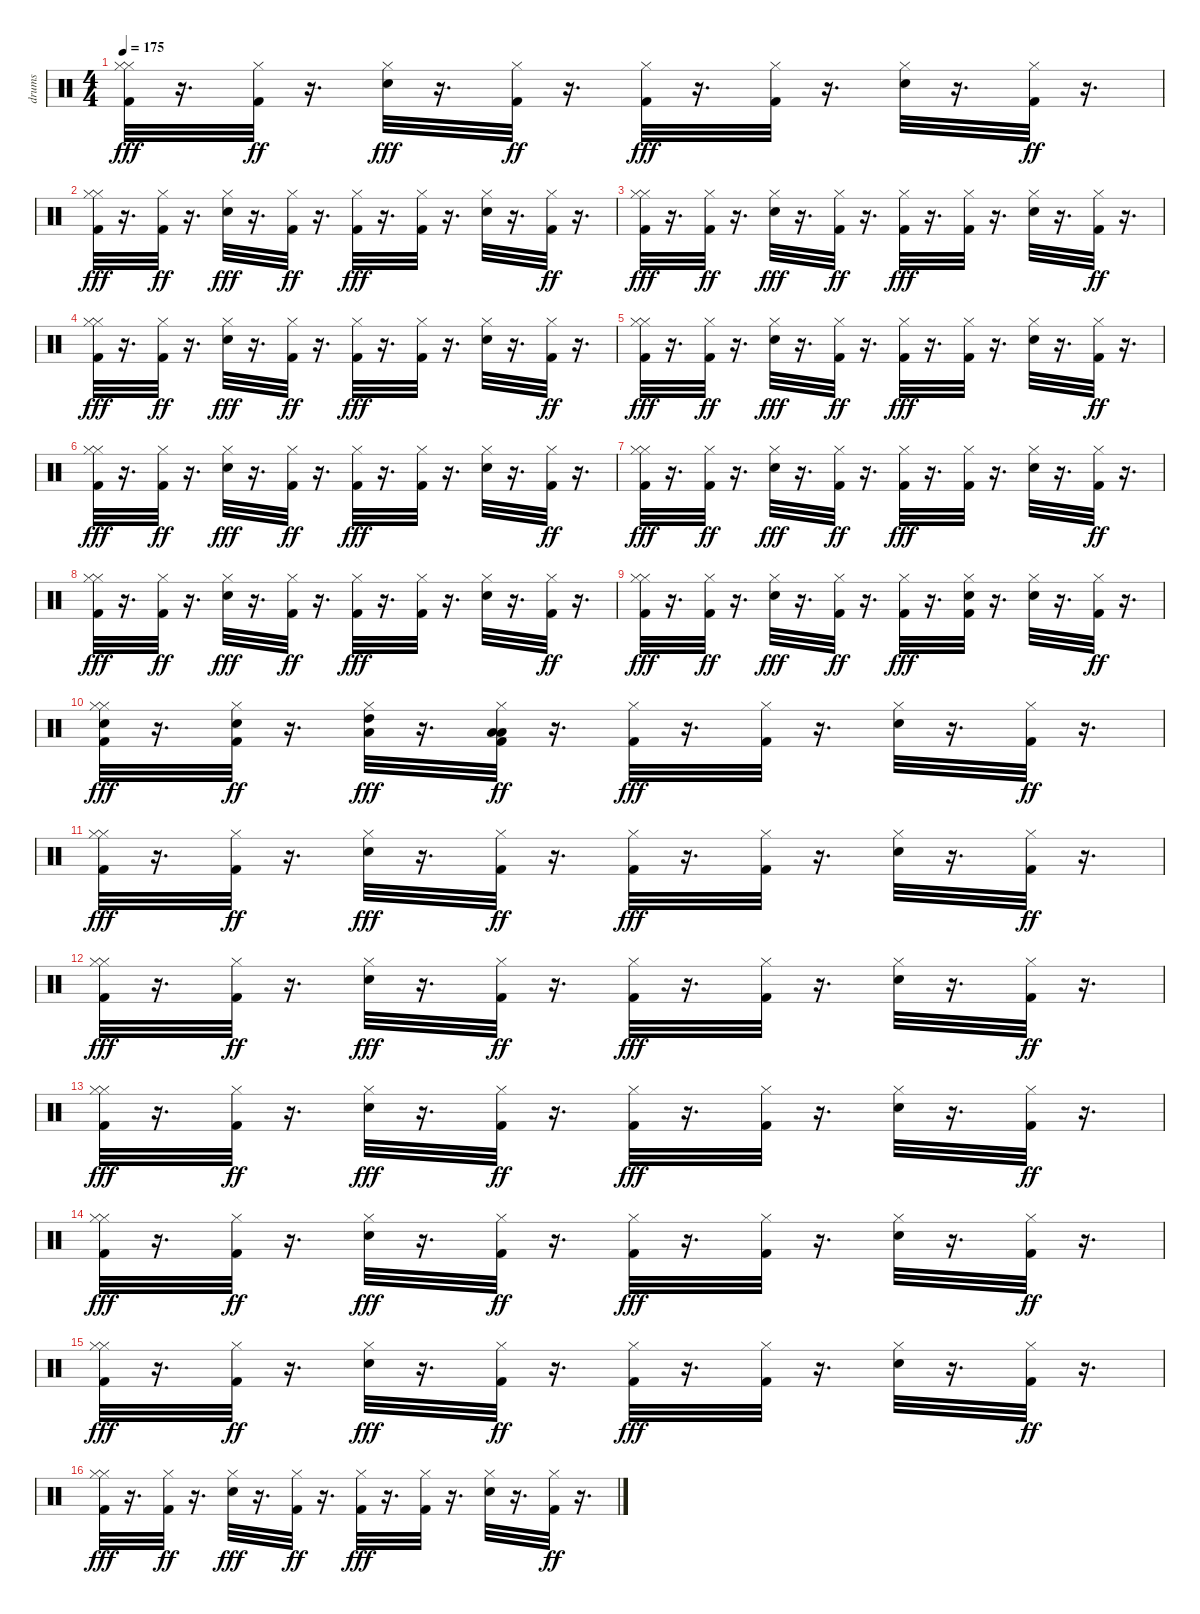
\track ("drums" "drums") {instrument percussion}
\staff {score}
\articulation defaults
\ts (4 4)
\tempo 175
\clef neutral
\ks c
("Hi-Hat (closed)" "Hi-Hat (closed)" "Kick (hit) 2").32{dy fff} r.16{d} ("Hi-Hat (closed)" "Kick (hit) 2").32{dy ff} r.16{d} ("Hi-Hat (closed)" "Electric Snare (hit)").32{dy fff} r.16{d} ("Hi-Hat (closed)" "Kick (hit) 2").32{dy ff} r.16{d} ("Hi-Hat (closed)" "Kick (hit) 2").32{dy fff} r.16{d} ("Hi-Hat (closed)" "Kick (hit) 2").32 r.16{d} ("Hi-Hat (closed)" "Electric Snare (hit)").32 r.16{d} ("Hi-Hat (closed)" "Kick (hit) 2").32{dy ff} r.16{d} |
("Hi-Hat (closed)" "Hi-Hat (closed)" "Kick (hit) 2").32{dy fff} r.16{d} ("Hi-Hat (closed)" "Kick (hit) 2").32{dy ff} r.16{d} ("Hi-Hat (closed)" "Electric Snare (hit)").32{dy fff} r.16{d} ("Hi-Hat (closed)" "Kick (hit) 2").32{dy ff} r.16{d} ("Hi-Hat (closed)" "Kick (hit) 2").32{dy fff} r.16{d} ("Hi-Hat (closed)" "Kick (hit) 2").32 r.16{d} ("Hi-Hat (closed)" "Electric Snare (hit)").32 r.16{d} ("Hi-Hat (closed)" "Kick (hit) 2").32{dy ff} r.16{d} |
("Hi-Hat (closed)" "Hi-Hat (closed)" "Kick (hit) 2").32{dy fff} r.16{d} ("Hi-Hat (closed)" "Kick (hit) 2").32{dy ff} r.16{d} ("Hi-Hat (closed)" "Electric Snare (hit)").32{dy fff} r.16{d} ("Hi-Hat (closed)" "Kick (hit) 2").32{dy ff} r.16{d} ("Hi-Hat (closed)" "Kick (hit) 2").32{dy fff} r.16{d} ("Hi-Hat (closed)" "Kick (hit) 2").32 r.16{d} ("Hi-Hat (closed)" "Electric Snare (hit)").32 r.16{d} ("Hi-Hat (closed)" "Kick (hit) 2").32{dy ff} r.16{d} |
("Hi-Hat (closed)" "Hi-Hat (closed)" "Kick (hit) 2").32{dy fff} r.16{d} ("Hi-Hat (closed)" "Kick (hit) 2").32{dy ff} r.16{d} ("Hi-Hat (closed)" "Electric Snare (hit)").32{dy fff} r.16{d} ("Hi-Hat (closed)" "Kick (hit) 2").32{dy ff} r.16{d} ("Hi-Hat (closed)" "Kick (hit) 2").32{dy fff} r.16{d} ("Hi-Hat (closed)" "Kick (hit) 2").32 r.16{d} ("Hi-Hat (closed)" "Electric Snare (hit)").32 r.16{d} ("Hi-Hat (closed)" "Kick (hit) 2").32{dy ff} r.16{d} |
("Hi-Hat (closed)" "Hi-Hat (closed)" "Kick (hit) 2").32{dy fff} r.16{d} ("Hi-Hat (closed)" "Kick (hit) 2").32{dy ff} r.16{d} ("Hi-Hat (closed)" "Electric Snare (hit)").32{dy fff} r.16{d} ("Hi-Hat (closed)" "Kick (hit) 2").32{dy ff} r.16{d} ("Hi-Hat (closed)" "Kick (hit) 2").32{dy fff} r.16{d} ("Hi-Hat (closed)" "Kick (hit) 2").32 r.16{d} ("Hi-Hat (closed)" "Electric Snare (hit)").32 r.16{d} ("Hi-Hat (closed)" "Kick (hit) 2").32{dy ff} r.16{d} |
("Hi-Hat (closed)" "Hi-Hat (closed)" "Kick (hit) 2").32{dy fff} r.16{d} ("Hi-Hat (closed)" "Kick (hit) 2").32{dy ff} r.16{d} ("Hi-Hat (closed)" "Electric Snare (hit)").32{dy fff} r.16{d} ("Hi-Hat (closed)" "Kick (hit) 2").32{dy ff} r.16{d} ("Hi-Hat (closed)" "Kick (hit) 2").32{dy fff} r.16{d} ("Hi-Hat (closed)" "Kick (hit) 2").32 r.16{d} ("Hi-Hat (closed)" "Electric Snare (hit)").32 r.16{d} ("Hi-Hat (closed)" "Kick (hit) 2").32{dy ff} r.16{d} |
("Hi-Hat (closed)" "Hi-Hat (closed)" "Kick (hit) 2").32{dy fff} r.16{d} ("Hi-Hat (closed)" "Kick (hit) 2").32{dy ff} r.16{d} ("Hi-Hat (closed)" "Electric Snare (hit)").32{dy fff} r.16{d} ("Hi-Hat (closed)" "Kick (hit) 2").32{dy ff} r.16{d} ("Hi-Hat (closed)" "Kick (hit) 2").32{dy fff} r.16{d} ("Hi-Hat (closed)" "Kick (hit) 2").32 r.16{d} ("Hi-Hat (closed)" "Electric Snare (hit)").32 r.16{d} ("Hi-Hat (closed)" "Kick (hit) 2").32{dy ff} r.16{d} |
("Hi-Hat (closed)" "Hi-Hat (closed)" "Kick (hit) 2").32{dy fff} r.16{d} ("Hi-Hat (closed)" "Kick (hit) 2").32{dy ff} r.16{d} ("Hi-Hat (closed)" "Electric Snare (hit)").32{dy fff} r.16{d} ("Hi-Hat (closed)" "Kick (hit) 2").32{dy ff} r.16{d} ("Hi-Hat (closed)" "Kick (hit) 2").32{dy fff} r.16{d} ("Hi-Hat (closed)" "Kick (hit) 2").32 r.16{d} ("Hi-Hat (closed)" "Electric Snare (hit)").32 r.16{d} ("Hi-Hat (closed)" "Kick (hit) 2").32{dy ff} r.16{d} |
("Hi-Hat (closed)" "Hi-Hat (closed)" "Kick (hit) 2").32{dy fff} r.16{d} ("Hi-Hat (closed)" "Kick (hit) 2").32{dy ff} r.16{d} ("Hi-Hat (closed)" "Electric Snare (hit)").32{dy fff} r.16{d} ("Hi-Hat (closed)" "Kick (hit) 2").32{dy ff} r.16{d} ("Hi-Hat (closed)" "Kick (hit) 2").32{dy fff} r.16{d} ("Hi-Hat (closed)" "Electric Snare (hit)" "Kick (hit) 2").32 r.16{d} ("Hi-Hat (closed)" "Electric Snare (hit)").32 r.16{d} ("Hi-Hat (closed)" "Kick (hit) 2").32{dy ff} r.16{d} |
("Hi-Hat (closed)" "Hi-Hat (closed)" "Electric Snare (hit)" "Kick (hit) 2").32{dy fff} r.16{d} ("Hi-Hat (closed)" "Electric Snare (hit)" "Kick (hit) 2").32{dy ff} r.16{d} ("Hi-Hat (closed)" "Low Tom (hit)" "High Tom (hit)").32{dy fff} r.16{d} ("Hi-Hat (closed)" "Low Floor Tom (hit)" "Low Tom (hit)" "Kick (hit) 2").32{dy ff} r.16{d} ("Hi-Hat (closed)" "Kick (hit) 2").32{dy fff} r.16{d} ("Hi-Hat (closed)" "Kick (hit) 2").32 r.16{d} ("Hi-Hat (closed)" "Electric Snare (hit)").32 r.16{d} ("Hi-Hat (closed)" "Kick (hit) 2").32{dy ff} r.16{d} |
("Hi-Hat (closed)" "Hi-Hat (closed)" "Kick (hit) 2").32{dy fff} r.16{d} ("Hi-Hat (closed)" "Kick (hit) 2").32{dy ff} r.16{d} ("Hi-Hat (closed)" "Electric Snare (hit)").32{dy fff} r.16{d} ("Hi-Hat (closed)" "Kick (hit) 2").32{dy ff} r.16{d} ("Hi-Hat (closed)" "Kick (hit) 2").32{dy fff} r.16{d} ("Hi-Hat (closed)" "Kick (hit) 2").32 r.16{d} ("Hi-Hat (closed)" "Electric Snare (hit)").32 r.16{d} ("Hi-Hat (closed)" "Kick (hit) 2").32{dy ff} r.16{d} |
("Hi-Hat (closed)" "Hi-Hat (closed)" "Kick (hit) 2").32{dy fff} r.16{d} ("Hi-Hat (closed)" "Kick (hit) 2").32{dy ff} r.16{d} ("Hi-Hat (closed)" "Electric Snare (hit)").32{dy fff} r.16{d} ("Hi-Hat (closed)" "Kick (hit) 2").32{dy ff} r.16{d} ("Hi-Hat (closed)" "Kick (hit) 2").32{dy fff} r.16{d} ("Hi-Hat (closed)" "Kick (hit) 2").32 r.16{d} ("Hi-Hat (closed)" "Electric Snare (hit)").32 r.16{d} ("Hi-Hat (closed)" "Kick (hit) 2").32{dy ff} r.16{d} |
("Hi-Hat (closed)" "Hi-Hat (closed)" "Kick (hit) 2").32{dy fff} r.16{d} ("Hi-Hat (closed)" "Kick (hit) 2").32{dy ff} r.16{d} ("Hi-Hat (closed)" "Electric Snare (hit)").32{dy fff} r.16{d} ("Hi-Hat (closed)" "Kick (hit) 2").32{dy ff} r.16{d} ("Hi-Hat (closed)" "Kick (hit) 2").32{dy fff} r.16{d} ("Hi-Hat (closed)" "Kick (hit) 2").32 r.16{d} ("Hi-Hat (closed)" "Electric Snare (hit)").32 r.16{d} ("Hi-Hat (closed)" "Kick (hit) 2").32{dy ff} r.16{d} |
("Hi-Hat (closed)" "Hi-Hat (closed)" "Kick (hit) 2").32{dy fff} r.16{d} ("Hi-Hat (closed)" "Kick (hit) 2").32{dy ff} r.16{d} ("Hi-Hat (closed)" "Electric Snare (hit)").32{dy fff} r.16{d} ("Hi-Hat (closed)" "Kick (hit) 2").32{dy ff} r.16{d} ("Hi-Hat (closed)" "Kick (hit) 2").32{dy fff} r.16{d} ("Hi-Hat (closed)" "Kick (hit) 2").32 r.16{d} ("Hi-Hat (closed)" "Electric Snare (hit)").32 r.16{d} ("Hi-Hat (closed)" "Kick (hit) 2").32{dy ff} r.16{d} |
("Hi-Hat (closed)" "Hi-Hat (closed)" "Kick (hit) 2").32{dy fff} r.16{d} ("Hi-Hat (closed)" "Kick (hit) 2").32{dy ff} r.16{d} ("Hi-Hat (closed)" "Electric Snare (hit)").32{dy fff} r.16{d} ("Hi-Hat (closed)" "Kick (hit) 2").32{dy ff} r.16{d} ("Hi-Hat (closed)" "Kick (hit) 2").32{dy fff} r.16{d} ("Hi-Hat (closed)" "Kick (hit) 2").32 r.16{d} ("Hi-Hat (closed)" "Electric Snare (hit)").32 r.16{d} ("Hi-Hat (closed)" "Kick (hit) 2").32{dy ff} r.16{d} |
("Hi-Hat (closed)" "Hi-Hat (closed)" "Kick (hit) 2").32{dy fff} r.16{d} ("Hi-Hat (closed)" "Kick (hit) 2").32{dy ff} r.16{d} ("Hi-Hat (closed)" "Electric Snare (hit)").32{dy fff} r.16{d} ("Hi-Hat (closed)" "Kick (hit) 2").32{dy ff} r.16{d} ("Hi-Hat (closed)" "Kick (hit) 2").32{dy fff} r.16{d} ("Hi-Hat (closed)" "Kick (hit) 2").32 r.16{d} ("Hi-Hat (closed)" "Electric Snare (hit)").32 r.16{d} ("Hi-Hat (closed)" "Kick (hit) 2").32{dy ff} r.16{d}
